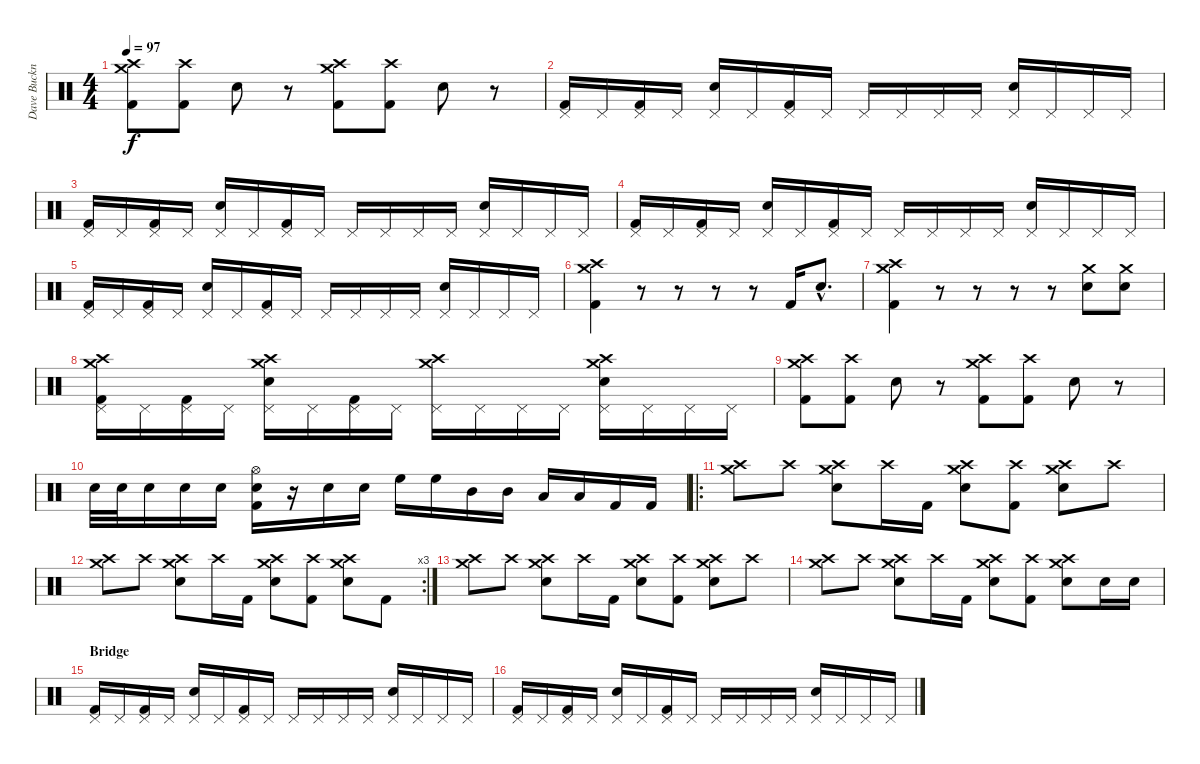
\track ("Dave Buckner" "Dave Buckn") {instrument percussion}
\staff {score}
\articulation defaults
\ts (4 4)
\tempo 97
\clef neutral
\ks c
("Crash medium (hit)" "Crash high (hit)" "Kick (hit) 2").8{dy f} ("Crash high (hit)" "Kick (hit) 2").8 "Snare (hit) 2".8 r.8 ("Crash medium (hit)" "Crash high (hit)" "Kick (hit) 2").8 ("Crash high (hit)" "Kick (hit) 2").8 "Snare (hit) 2".8 r.8 |
("Pedal Hi-Hat (hit)" "Kick (hit) 2").16 "Pedal Hi-Hat (hit)".16 ("Pedal Hi-Hat (hit)" "Kick (hit) 2").16 "Pedal Hi-Hat (hit)".16 ("Pedal Hi-Hat (hit)" "Snare (hit) 2").16 "Pedal Hi-Hat (hit)".16 ("Pedal Hi-Hat (hit)" "Kick (hit) 2").16 "Pedal Hi-Hat (hit)".16 "Pedal Hi-Hat (hit)".16 "Pedal Hi-Hat (hit)".16 "Pedal Hi-Hat (hit)".16 "Pedal Hi-Hat (hit)".16 ("Pedal Hi-Hat (hit)" "Snare (hit) 2").16 "Pedal Hi-Hat (hit)".16 "Pedal Hi-Hat (hit)".16 "Pedal Hi-Hat (hit)".16 |
("Pedal Hi-Hat (hit)" "Kick (hit) 2").16 "Pedal Hi-Hat (hit)".16 ("Pedal Hi-Hat (hit)" "Kick (hit) 2").16 "Pedal Hi-Hat (hit)".16 ("Pedal Hi-Hat (hit)" "Snare (hit) 2").16 "Pedal Hi-Hat (hit)".16 ("Pedal Hi-Hat (hit)" "Kick (hit) 2").16 "Pedal Hi-Hat (hit)".16 "Pedal Hi-Hat (hit)".16 "Pedal Hi-Hat (hit)".16 "Pedal Hi-Hat (hit)".16 "Pedal Hi-Hat (hit)".16 ("Pedal Hi-Hat (hit)" "Snare (hit) 2").16 "Pedal Hi-Hat (hit)".16 "Pedal Hi-Hat (hit)".16 "Pedal Hi-Hat (hit)".16 |
("Pedal Hi-Hat (hit)" "Kick (hit) 2").16 "Pedal Hi-Hat (hit)".16 ("Pedal Hi-Hat (hit)" "Kick (hit) 2").16 "Pedal Hi-Hat (hit)".16 ("Pedal Hi-Hat (hit)" "Snare (hit) 2").16 "Pedal Hi-Hat (hit)".16 ("Pedal Hi-Hat (hit)" "Kick (hit) 2").16 "Pedal Hi-Hat (hit)".16 "Pedal Hi-Hat (hit)".16 "Pedal Hi-Hat (hit)".16 "Pedal Hi-Hat (hit)".16 "Pedal Hi-Hat (hit)".16 ("Pedal Hi-Hat (hit)" "Snare (hit) 2").16 "Pedal Hi-Hat (hit)".16 "Pedal Hi-Hat (hit)".16 "Pedal Hi-Hat (hit)".16 |
("Pedal Hi-Hat (hit)" "Kick (hit) 2").16 "Pedal Hi-Hat (hit)".16 ("Pedal Hi-Hat (hit)" "Kick (hit) 2").16 "Pedal Hi-Hat (hit)".16 ("Pedal Hi-Hat (hit)" "Snare (hit) 2").16 "Pedal Hi-Hat (hit)".16 ("Pedal Hi-Hat (hit)" "Kick (hit) 2").16 "Pedal Hi-Hat (hit)".16 "Pedal Hi-Hat (hit)".16 "Pedal Hi-Hat (hit)".16 "Pedal Hi-Hat (hit)".16 "Pedal Hi-Hat (hit)".16 ("Pedal Hi-Hat (hit)" "Snare (hit) 2").16 "Pedal Hi-Hat (hit)".16 "Pedal Hi-Hat (hit)".16 "Pedal Hi-Hat (hit)".16 |
("Crash medium (hit)" "Crash high (hit)" "Kick (hit) 2").4 r.8 r.8 r.8 r.8 "Kick (hit) 2".16 "Snare (hit) 2"{hac}.8{d} |
("Crash medium (hit)" "Crash high (hit)" "Kick (hit) 2").4 r.8 r.8 r.8 r.8 ("Crash medium (hit)" "Snare (hit) 2").8 ("Crash medium (hit)" "Snare (hit) 2").8 |
("Crash medium (hit)" "Crash high (hit)" "Pedal Hi-Hat (hit)" "Kick (hit) 2").16 "Pedal Hi-Hat (hit)".16 ("Pedal Hi-Hat (hit)" "Kick (hit) 2").16 "Pedal Hi-Hat (hit)".16 ("Crash medium (hit)" "Crash high (hit)" "Pedal Hi-Hat (hit)" "Snare (hit) 2").16 "Pedal Hi-Hat (hit)".16 ("Pedal Hi-Hat (hit)" "Kick (hit) 2").16 "Pedal Hi-Hat (hit)".16 ("Crash medium (hit)" "Crash high (hit)" "Pedal Hi-Hat (hit)").16 "Pedal Hi-Hat (hit)".16 "Pedal Hi-Hat (hit)".16 "Pedal Hi-Hat (hit)".16 ("Crash medium (hit)" "Crash high (hit)" "Pedal Hi-Hat (hit)" "Snare (hit) 2").16 "Pedal Hi-Hat (hit)".16 "Pedal Hi-Hat (hit)".16 "Pedal Hi-Hat (hit)".16 |
("Crash medium (hit)" "Crash high (hit)" "Kick (hit) 2").8 ("Crash high (hit)" "Kick (hit) 2").8 "Snare (hit) 2".8 r.8 ("Crash medium (hit)" "Crash high (hit)" "Kick (hit) 2").8 ("Crash high (hit)" "Kick (hit) 2").8 "Snare (hit) 2".8 r.8 |
"Snare (hit) 2".32 "Snare (hit) 2".32 "Snare (hit) 2".16 "Snare (hit) 2".16 "Snare (hit) 2".16 ("Hi-Hat (open)" "Snare (hit) 2" "Kick (hit) 2").16 r.16 "Snare (hit) 2".16 "Snare (hit) 2".16 "High Floor Tom (hit)".16 "High Floor Tom (hit)".16 "Mid Tom (hit)".16 "Mid Tom (hit)".16 "Low Tom (hit)".16 "Low Tom (hit)".16 "Kick (hit) 2".16 "Kick (hit) 2".16 |
\ro
("Crash medium (hit)" "Crash high (hit)").8 "Crash high (hit)".8 ("Crash medium (hit)" "Crash high (hit)" "Snare (hit) 2").8 "Crash high (hit)".16 "Kick (hit) 2".16 ("Crash medium (hit)" "Crash high (hit)" "Snare (hit) 2").8 ("Crash high (hit)" "Kick (hit) 2").8 ("Crash medium (hit)" "Crash high (hit)" "Snare (hit) 2").8 "Crash high (hit)".8 |
\rc 3
("Crash medium (hit)" "Crash high (hit)").8 "Crash high (hit)".8 ("Crash medium (hit)" "Crash high (hit)" "Snare (hit) 2").8 "Crash high (hit)".16 "Kick (hit) 2".16 ("Crash medium (hit)" "Crash high (hit)" "Snare (hit) 2").8 ("Crash high (hit)" "Kick (hit) 2").8 ("Crash medium (hit)" "Crash high (hit)" "Snare (hit) 2").8 "Kick (hit) 2".8 |
("Crash medium (hit)" "Crash high (hit)").8 "Crash high (hit)".8 ("Crash medium (hit)" "Crash high (hit)" "Snare (hit) 2").8 "Crash high (hit)".16 "Kick (hit) 2".16 ("Crash medium (hit)" "Crash high (hit)" "Snare (hit) 2").8 ("Crash high (hit)" "Kick (hit) 2").8 ("Crash medium (hit)" "Crash high (hit)" "Snare (hit) 2").8 "Crash high (hit)".8 |
("Crash medium (hit)" "Crash high (hit)").8 "Crash high (hit)".8 ("Crash medium (hit)" "Crash high (hit)" "Snare (hit) 2").8 "Crash high (hit)".16 "Kick (hit) 2".16 ("Crash medium (hit)" "Crash high (hit)" "Snare (hit) 2").8 ("Crash high (hit)" "Kick (hit) 2").8 ("Crash medium (hit)" "Crash high (hit)" "Snare (hit) 2").8 "Snare (hit) 2".16 "Snare (hit) 2".16 |
\section ("" "Bridge")
("Pedal Hi-Hat (hit)" "Kick (hit) 2").16 "Pedal Hi-Hat (hit)".16 ("Pedal Hi-Hat (hit)" "Kick (hit) 2").16 "Pedal Hi-Hat (hit)".16 ("Pedal Hi-Hat (hit)" "Snare (hit) 2").16 "Pedal Hi-Hat (hit)".16 ("Pedal Hi-Hat (hit)" "Kick (hit) 2").16 "Pedal Hi-Hat (hit)".16 "Pedal Hi-Hat (hit)".16 "Pedal Hi-Hat (hit)".16 "Pedal Hi-Hat (hit)".16 "Pedal Hi-Hat (hit)".16 ("Pedal Hi-Hat (hit)" "Snare (hit) 2").16 "Pedal Hi-Hat (hit)".16 "Pedal Hi-Hat (hit)".16 "Pedal Hi-Hat (hit)".16 |
("Pedal Hi-Hat (hit)" "Kick (hit) 2").16 "Pedal Hi-Hat (hit)".16 ("Pedal Hi-Hat (hit)" "Kick (hit) 2").16 "Pedal Hi-Hat (hit)".16 ("Pedal Hi-Hat (hit)" "Snare (hit) 2").16 "Pedal Hi-Hat (hit)".16 ("Pedal Hi-Hat (hit)" "Kick (hit) 2").16 "Pedal Hi-Hat (hit)".16 "Pedal Hi-Hat (hit)".16 "Pedal Hi-Hat (hit)".16 "Pedal Hi-Hat (hit)".16 "Pedal Hi-Hat (hit)".16 ("Pedal Hi-Hat (hit)" "Snare (hit) 2").16 "Pedal Hi-Hat (hit)".16 "Pedal Hi-Hat (hit)".16 "Pedal Hi-Hat (hit)".16
